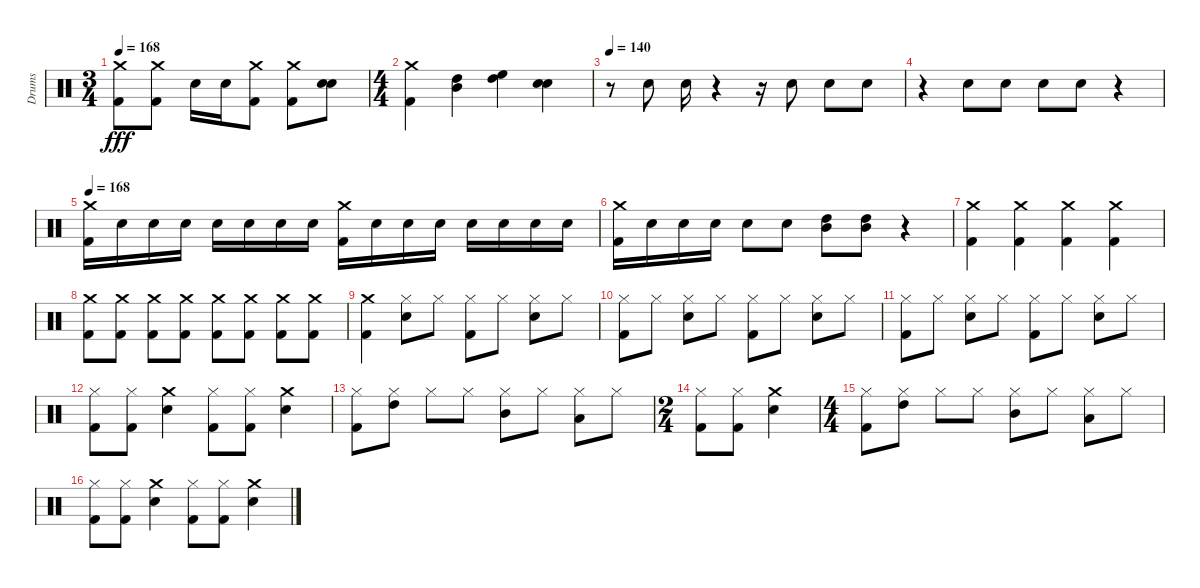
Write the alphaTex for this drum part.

\track ("Drums" "Drums") {instrument percussion}
\staff {score}
\articulation defaults
\ts (3 4)
\tempo 168
\clef neutral
\ks c
("Kick (hit) 2" "Crash medium (hit)").8{dy fff} ("Kick (hit) 2" "Crash medium (hit)").8 "Snare (hit) 2".16 "Snare (hit) 2".16 ("Crash medium (hit)" "Kick (hit) 2").8 ("Crash medium (hit)" "Kick (hit) 2").8 ("Snare (hit) 2" "Snare (hit) 2").8{bd 120} |
\ts (4 4)
("Kick (hit) 2" "Crash medium (hit)").4 ("Mid Tom (hit)" "High Tom (hit)").4 ("High Floor Tom (hit)" "High Tom (hit)").4 ("Snare (hit) 2" "Snare (hit) 2").4{bd 120} |
\tempo 140
r.8 "Snare (hit) 2".8 "Snare (hit) 2".16 r.4 r.16 "Snare (hit) 2".8 "Snare (hit) 2".8 "Snare (hit) 2".8 |
r.4 "Snare (hit) 2".8 "Snare (hit) 2".8 "Snare (hit) 2".8 "Snare (hit) 2".8 r.4 |
\tempo 168
("Kick (hit) 2" "Crash medium (hit)").16 "Snare (hit) 2".16 "Snare (hit) 2".16 "Snare (hit) 2".16 "Snare (hit) 2".16 "Snare (hit) 2".16 "Snare (hit) 2".16 "Snare (hit) 2".16 ("Kick (hit) 2" "Crash medium (hit)").16 "Snare (hit) 2".16 "Snare (hit) 2".16 "Snare (hit) 2".16 "Snare (hit) 2".16 "Snare (hit) 2".16 "Snare (hit) 2".16 "Snare (hit) 2".16 |
("Kick (hit) 2" "Crash medium (hit)").16 "Snare (hit) 2".16 "Snare (hit) 2".16 "Snare (hit) 2".16 "Snare (hit) 2".8 "Snare (hit) 2".8 ("High Tom (hit)" "Mid Tom (hit)").8 ("High Tom (hit)" "Mid Tom (hit)").8 r.4 |
("Crash medium (hit)" "Kick (hit) 2").4 ("Crash medium (hit)" "Kick (hit) 2").4 ("Crash medium (hit)" "Kick (hit) 2").4 ("Crash medium (hit)" "Kick (hit) 2").4 |
("Kick (hit) 2" "Crash medium (hit)").8 ("Kick (hit) 2" "Crash medium (hit)").8 ("Kick (hit) 2" "Crash medium (hit)").8 ("Kick (hit) 2" "Crash medium (hit)").8 ("Kick (hit) 2" "Crash medium (hit)").8 ("Kick (hit) 2" "Crash medium (hit)").8 ("Kick (hit) 2" "Crash medium (hit)").8 ("Kick (hit) 2" "Crash medium (hit)").8 |
("Crash medium (hit)" "Kick (hit) 2").4 ("Hi-Hat (closed)" "Snare (hit) 2").8 "Hi-Hat (closed)".8 ("Kick (hit) 2" "Hi-Hat (closed)").8 "Hi-Hat (closed)".8 ("Snare (hit) 2" "Hi-Hat (closed)").8 "Hi-Hat (closed)".8 |
("Kick (hit) 2" "Hi-Hat (closed)").8 "Hi-Hat (closed)".8 ("Snare (hit) 2" "Hi-Hat (closed)").8 "Hi-Hat (closed)".8 ("Kick (hit) 2" "Hi-Hat (closed)").8 "Hi-Hat (closed)".8 ("Snare (hit) 2" "Hi-Hat (closed)").8 "Hi-Hat (closed)".8 |
("Kick (hit) 2" "Hi-Hat (closed)").8 "Hi-Hat (closed)".8 ("Snare (hit) 2" "Hi-Hat (closed)").8 "Hi-Hat (closed)".8 ("Kick (hit) 2" "Hi-Hat (closed)").8 "Hi-Hat (closed)".8 ("Snare (hit) 2" "Hi-Hat (closed)").8 "Hi-Hat (closed)".8 |
("Kick (hit) 2" "Hi-Hat (closed)").8 ("Kick (hit) 2" "Hi-Hat (closed)").8 ("Snare (hit) 2" "Crash medium (hit)").4 ("Hi-Hat (closed)" "Kick (hit) 2").8 ("Hi-Hat (closed)" "Kick (hit) 2").8 ("Crash medium (hit)" "Snare (hit) 2").4 |
("Hi-Hat (closed)" "Kick (hit) 2").8 ("High Tom (hit)" "Hi-Hat (closed)").8{balance 16} "Hi-Hat (closed)".8{balance 8} "Hi-Hat (closed)".8 ("Mid Tom (hit)" "Hi-Hat (closed)").8 "Hi-Hat (closed)".8 ("Low Tom (hit)" "Hi-Hat (closed)").8{balance 0} "Hi-Hat (closed)".8{balance 8} |
\ts (2 4)
("Kick (hit) 2" "Hi-Hat (closed)").8 ("Kick (hit) 2" "Hi-Hat (closed)").8 ("Snare (hit) 2" "Crash medium (hit)").4 |
\ts (4 4)
("Hi-Hat (closed)" "Kick (hit) 2").8 ("High Tom (hit)" "Hi-Hat (closed)").8{balance 16} "Hi-Hat (closed)".8{balance 8} "Hi-Hat (closed)".8 ("Mid Tom (hit)" "Hi-Hat (closed)").8 "Hi-Hat (closed)".8 ("Low Tom (hit)" "Hi-Hat (closed)").8{balance 0} "Hi-Hat (closed)".8{balance 8} |
("Hi-Hat (closed)" "Kick (hit) 2").8 ("Hi-Hat (closed)" "Kick (hit) 2").8 ("Snare (hit) 2" "Crash medium (hit)").4 ("Kick (hit) 2" "Hi-Hat (closed)").8 ("Kick (hit) 2" "Hi-Hat (closed)").8 ("Crash medium (hit)" "Snare (hit) 2").4
